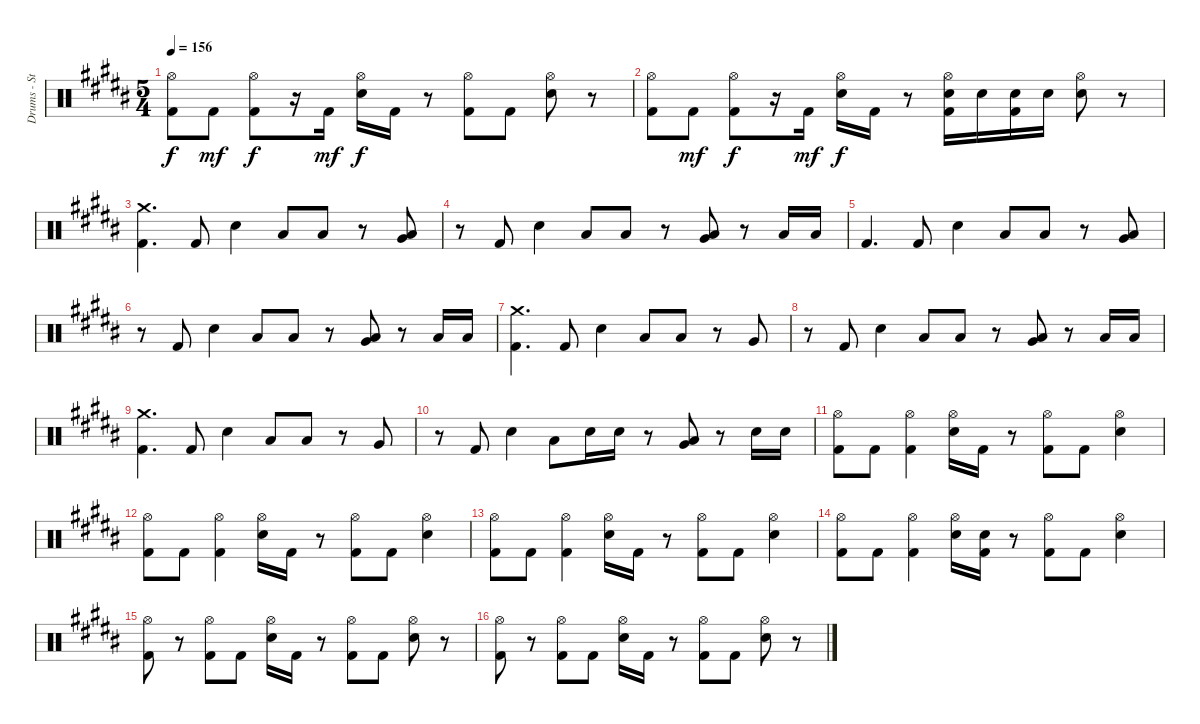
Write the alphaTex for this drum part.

\track ("Drums - Steve Judd" "Drums - St") {instrument percussion}
\staff {score}
\articulation defaults
\ts (5 4)
\tempo 156
\clef neutral
\ks b
("Hi-Hat (open)" "Kick (hit) 2").8{dy f} "Kick (hit) 2".8{dy mf} ("Hi-Hat (open)" "Kick (hit) 2").8{dy f} r.16 "Kick (hit) 2".16{dy mf} ("Hi-Hat (open)" "Electric Snare (hit)").16{dy f} "Kick (hit) 2".16 r.8 ("Hi-Hat (open)" "Kick (hit) 2").8 "Kick (hit) 2".8 ("Hi-Hat (open)" "Electric Snare (hit)").8 r.8 |
("Hi-Hat (open)" "Kick (hit) 2").8 "Kick (hit) 2".8{dy mf} ("Hi-Hat (open)" "Kick (hit) 2").8{dy f} r.16 "Kick (hit) 2".16{dy mf} ("Hi-Hat (open)" "Electric Snare (hit)").16{dy f} "Kick (hit) 2".16 r.8 ("Hi-Hat (open)" "Electric Snare (hit)" "Kick (hit) 2").16 "Electric Snare (hit)".16 ("Electric Snare (hit)" "Kick (hit) 2").16 "Electric Snare (hit)".16 ("Hi-Hat (open)" "Electric Snare (hit)").8 r.8 |
("Crash medium (hit)" "Kick (hit) 2").4{d} "Kick (hit) 2".8 "Electric Snare (hit)".4 "Low Floor Tom (hit)".8 "Low Tom (hit)".8 r.8 ("Low Floor Tom (hit)" "Very Low Tom (hit)").8 |
r.8 "Kick (hit) 2".8 "Electric Snare (hit)".4 "Low Floor Tom (hit)".8 "Low Tom (hit)".8 r.8 ("Low Floor Tom (hit)" "Very Low Tom (hit)").8 r.8 "Low Floor Tom (hit)".16 "Low Floor Tom (hit)".16 |
"Kick (hit) 2".4{d} "Kick (hit) 2".8 "Electric Snare (hit)".4 "Low Floor Tom (hit)".8 "Low Tom (hit)".8 r.8 ("Low Floor Tom (hit)" "Very Low Tom (hit)").8 |
r.8 "Kick (hit) 2".8 "Electric Snare (hit)".4 "Low Floor Tom (hit)".8 "Low Tom (hit)".8 r.8 ("Low Floor Tom (hit)" "Very Low Tom (hit)").8 r.8 "Low Floor Tom (hit)".16 "Low Floor Tom (hit)".16 |
("Crash medium (hit)" "Kick (hit) 2").4{d} "Kick (hit) 2".8 "Electric Snare (hit)".4 "Low Floor Tom (hit)".8 "Low Tom (hit)".8 r.8 "Very Low Tom (hit)".8 |
r.8 "Kick (hit) 2".8 "Electric Snare (hit)".4 "Low Floor Tom (hit)".8 "Low Tom (hit)".8 r.8 ("Low Floor Tom (hit)" "Very Low Tom (hit)").8 r.8 "Low Floor Tom (hit)".16 "Low Floor Tom (hit)".16 |
("Crash medium (hit)" "Kick (hit) 2").4{d} "Kick (hit) 2".8 "Electric Snare (hit)".4 "Low Floor Tom (hit)".8 "Low Tom (hit)".8 r.8 "Very Low Tom (hit)".8 |
r.8 "Kick (hit) 2".8 "Electric Snare (hit)".4 "Low Floor Tom (hit)".8 "Electric Snare (hit)".16 "Electric Snare (hit)".16 r.8 ("Low Floor Tom (hit)" "Very Low Tom (hit)").8 r.8 "Electric Snare (hit)".16 "Electric Snare (hit)".16 |
("Hi-Hat (open)" "Kick (hit) 2").8 "Kick (hit) 2".8 ("Hi-Hat (open)" "Kick (hit) 2").4 ("Hi-Hat (open)" "Electric Snare (hit)").16 "Kick (hit) 2".16 r.8 ("Hi-Hat (open)" "Kick (hit) 2").8 "Kick (hit) 2".8 ("Hi-Hat (open)" "Electric Snare (hit)").4 |
("Hi-Hat (open)" "Kick (hit) 2").8 "Kick (hit) 2".8 ("Hi-Hat (open)" "Kick (hit) 2").4 ("Hi-Hat (open)" "Electric Snare (hit)").16 "Kick (hit) 2".16 r.8 ("Hi-Hat (open)" "Kick (hit) 2").8 "Kick (hit) 2".8 ("Hi-Hat (open)" "Electric Snare (hit)").4 |
("Hi-Hat (open)" "Kick (hit) 2").8 "Kick (hit) 2".8 ("Hi-Hat (open)" "Kick (hit) 2").4 ("Hi-Hat (open)" "Electric Snare (hit)").16 "Kick (hit) 2".16 r.8 ("Hi-Hat (open)" "Kick (hit) 2").8 "Kick (hit) 2".8 ("Hi-Hat (open)" "Electric Snare (hit)").4 |
("Hi-Hat (open)" "Kick (hit) 2").8 "Kick (hit) 2".8 ("Hi-Hat (open)" "Kick (hit) 2").4 ("Hi-Hat (open)" "Electric Snare (hit)").16 ("Electric Snare (hit)" "Kick (hit) 2").16 r.8 ("Hi-Hat (open)" "Kick (hit) 2").8 "Kick (hit) 2".8 ("Hi-Hat (open)" "Electric Snare (hit)").4 |
("Hi-Hat (open)" "Kick (hit) 2").8 r.8 ("Hi-Hat (open)" "Kick (hit) 2").8 "Kick (hit) 2".8 ("Hi-Hat (open)" "Electric Snare (hit)").16 "Kick (hit) 2".16 r.8 ("Hi-Hat (open)" "Kick (hit) 2").8 "Kick (hit) 2".8 ("Hi-Hat (open)" "Electric Snare (hit)").8 r.8 |
("Hi-Hat (open)" "Kick (hit) 2").8 r.8 ("Hi-Hat (open)" "Kick (hit) 2").8 "Kick (hit) 2".8 ("Hi-Hat (open)" "Electric Snare (hit)").16 "Kick (hit) 2".16 r.8 ("Hi-Hat (open)" "Kick (hit) 2").8 "Kick (hit) 2".8 ("Hi-Hat (open)" "Electric Snare (hit)").8 r.8
